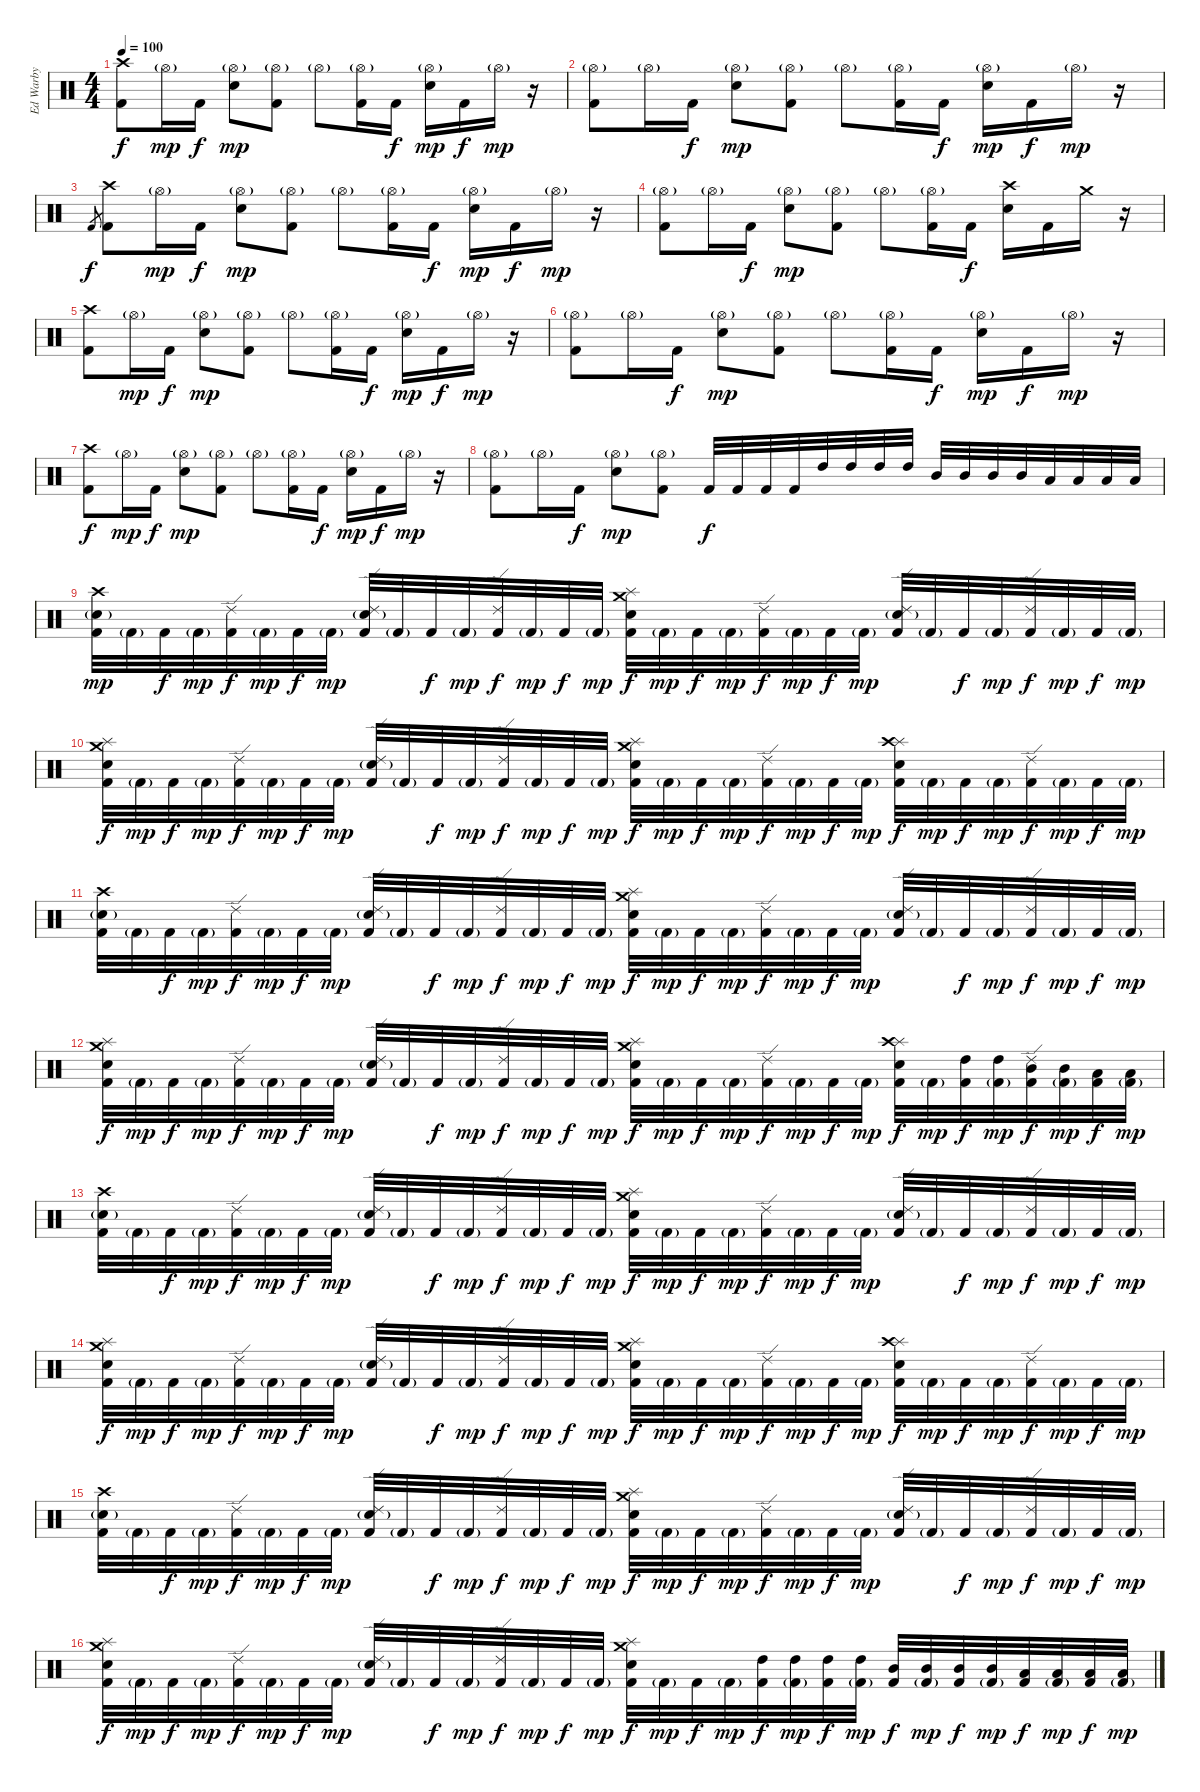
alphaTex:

\track ("Ed Warby" "Ed Warby") {instrument percussion}
\staff {score}
\articulation defaults
\ts (4 4)
\tempo 100
\clef neutral
\ks c
("Crash high (hit)" "Kick (hit) 2").8{dy f} "Hi-Hat (open)"{g}.16{dy mp} "Kick (hit) 2".16{dy f} ("Hi-Hat (open)"{g} "Electric Snare (hit)").8{dy mp} ("Hi-Hat (open)"{g} "Kick (hit) 2").8 "Hi-Hat (open)"{g}.8 ("Hi-Hat (open)"{g} "Kick (hit) 2").16 "Kick (hit) 2".16{dy f} ("Hi-Hat (open)"{g} "Electric Snare (hit)").16{dy mp} "Kick (hit) 2".16{dy f} "Hi-Hat (open)"{g}.16{dy mp} r.16 |
("Hi-Hat (open)"{g} "Kick (hit) 2").8 "Hi-Hat (open)"{g}.16 "Kick (hit) 2".16{dy f} ("Hi-Hat (open)"{g} "Electric Snare (hit)").8{dy mp} ("Hi-Hat (open)"{g} "Kick (hit) 2").8 "Hi-Hat (open)"{g}.8 ("Hi-Hat (open)"{g} "Kick (hit) 2").16 "Kick (hit) 2".16{dy f} ("Hi-Hat (open)"{g} "Electric Snare (hit)").16{dy mp} "Kick (hit) 2".16{dy f} "Hi-Hat (open)"{g}.16{dy mp} r.16 |
"Kick (hit) 2".8{gr dy f} ("Crash high (hit)" "Kick (hit) 2").8 "Hi-Hat (open)"{g}.16{dy mp} "Kick (hit) 2".16{dy f} ("Hi-Hat (open)"{g} "Electric Snare (hit)").8{dy mp} ("Hi-Hat (open)"{g} "Kick (hit) 2").8 "Hi-Hat (open)"{g}.8 ("Hi-Hat (open)"{g} "Kick (hit) 2").16 "Kick (hit) 2".16{dy f} ("Hi-Hat (open)"{g} "Electric Snare (hit)").16{dy mp} "Kick (hit) 2".16{dy f} "Hi-Hat (open)"{g}.16{dy mp} r.16 |
("Hi-Hat (open)"{g} "Kick (hit) 2").8 "Hi-Hat (open)"{g}.16 "Kick (hit) 2".16{dy f} ("Hi-Hat (open)"{g} "Electric Snare (hit)").8{dy mp} ("Hi-Hat (open)"{g} "Kick (hit) 2").8 "Hi-Hat (open)"{g}.8 ("Hi-Hat (open)"{g} "Kick (hit) 2").16 "Kick (hit) 2".16{dy f} ("Crash high (hit)" "Electric Snare (hit)").16 "Kick (hit) 2".16 "Crash medium (hit)".16 r.16 |
("Crash high (hit)" "Kick (hit) 2").8 "Hi-Hat (open)"{g}.16{dy mp} "Kick (hit) 2".16{dy f} ("Hi-Hat (open)"{g} "Electric Snare (hit)").8{dy mp} ("Hi-Hat (open)"{g} "Kick (hit) 2").8 "Hi-Hat (open)"{g}.8 ("Hi-Hat (open)"{g} "Kick (hit) 2").16 "Kick (hit) 2".16{dy f} ("Hi-Hat (open)"{g} "Electric Snare (hit)").16{dy mp} "Kick (hit) 2".16{dy f} "Hi-Hat (open)"{g}.16{dy mp} r.16 |
("Hi-Hat (open)"{g} "Kick (hit) 2").8 "Hi-Hat (open)"{g}.16 "Kick (hit) 2".16{dy f} ("Hi-Hat (open)"{g} "Electric Snare (hit)").8{dy mp} ("Hi-Hat (open)"{g} "Kick (hit) 2").8 "Hi-Hat (open)"{g}.8 ("Hi-Hat (open)"{g} "Kick (hit) 2").16 "Kick (hit) 2".16{dy f} ("Hi-Hat (open)"{g} "Electric Snare (hit)").16{dy mp} "Kick (hit) 2".16{dy f} "Hi-Hat (open)"{g}.16{dy mp} r.16 |
("Crash high (hit)" "Kick (hit) 2").8{dy f} "Hi-Hat (open)"{g}.16{dy mp} "Kick (hit) 2".16{dy f} ("Hi-Hat (open)"{g} "Electric Snare (hit)").8{dy mp} ("Hi-Hat (open)"{g} "Kick (hit) 2").8 "Hi-Hat (open)"{g}.8 ("Hi-Hat (open)"{g} "Kick (hit) 2").16 "Kick (hit) 2".16{dy f} ("Hi-Hat (open)"{g} "Electric Snare (hit)").16{dy mp} "Kick (hit) 2".16{dy f} "Hi-Hat (open)"{g}.16{dy mp} r.16 |
("Hi-Hat (open)"{g} "Kick (hit) 2").8 "Hi-Hat (open)"{g}.16 "Kick (hit) 2".16{dy f} ("Hi-Hat (open)"{g} "Electric Snare (hit)").8{dy mp} ("Hi-Hat (open)"{g} "Kick (hit) 2").8 "Kick (hit) 2".32{dy f} "Kick (hit) 2".32 "Kick (hit) 2".32 "Kick (hit) 2".32 "High Tom (hit)".32 "High Tom (hit)".32 "High Tom (hit)".32 "High Tom (hit)".32 "Mid Tom (hit)".32 "Mid Tom (hit)".32 "Mid Tom (hit)".32 "Mid Tom (hit)".32 "Low Tom (hit)".32 "Low Tom (hit)".32 "Low Tom (hit)".32 "Low Tom (hit)".32 |
("Crash high (hit)" "Snare (hit) 2"{g} "Kick (hit) 2").32{dy mp} "Kick (hit) 2"{g}.32 "Kick (hit) 2".32{dy f} "Kick (hit) 2"{g}.32{dy mp} ("Ride (edge) 2" "Kick (hit) 2").32{dy f} "Kick (hit) 2"{g}.32{dy mp} "Kick (hit) 2".32{dy f} "Kick (hit) 2"{g}.32{dy mp} ("Ride (edge) 2" "Snare (hit) 2"{g} "Kick (hit) 2").32 "Kick (hit) 2"{g}.32 "Kick (hit) 2".32{dy f} "Kick (hit) 2"{g}.32{dy mp} ("Ride (edge) 2" "Kick (hit) 2").32{dy f} "Kick (hit) 2"{g}.32{dy mp} "Kick (hit) 2".32{dy f} "Kick (hit) 2"{g}.32{dy mp} ("Splash (hit)" "Crash medium (hit)" "Snare (hit) 2" "Kick (hit) 2").32{dy f} "Kick (hit) 2"{g}.32{dy mp} "Kick (hit) 2".32{dy f} "Kick (hit) 2"{g}.32{dy mp} ("Ride (edge) 2" "Kick (hit) 2").32{dy f} "Kick (hit) 2"{g}.32{dy mp} "Kick (hit) 2".32{dy f} "Kick (hit) 2"{g}.32{dy mp} ("Ride (edge) 2" "Snare (hit) 2"{g} "Kick (hit) 2").32 "Kick (hit) 2"{g}.32 "Kick (hit) 2".32{dy f} "Kick (hit) 2"{g}.32{dy mp} ("Ride (edge) 2" "Kick (hit) 2").32{dy f} "Kick (hit) 2"{g}.32{dy mp} "Kick (hit) 2".32{dy f} "Kick (hit) 2"{g}.32{dy mp} |
("Splash (hit)" "Crash medium (hit)" "Snare (hit) 2" "Kick (hit) 2").32{dy f} "Kick (hit) 2"{g}.32{dy mp} "Kick (hit) 2".32{dy f} "Kick (hit) 2"{g}.32{dy mp} ("Ride (edge) 2" "Kick (hit) 2").32{dy f} "Kick (hit) 2"{g}.32{dy mp} "Kick (hit) 2".32{dy f} "Kick (hit) 2"{g}.32{dy mp} ("Ride (edge) 2" "Snare (hit) 2"{g} "Kick (hit) 2").32 "Kick (hit) 2"{g}.32 "Kick (hit) 2".32{dy f} "Kick (hit) 2"{g}.32{dy mp} ("Ride (edge) 2" "Kick (hit) 2").32{dy f} "Kick (hit) 2"{g}.32{dy mp} "Kick (hit) 2".32{dy f} "Kick (hit) 2"{g}.32{dy mp} ("Splash (hit)" "Crash medium (hit)" "Snare (hit) 2" "Kick (hit) 2").32{dy f} "Kick (hit) 2"{g}.32{dy mp} "Kick (hit) 2".32{dy f} "Kick (hit) 2"{g}.32{dy mp} ("Ride (edge) 2" "Kick (hit) 2").32{dy f} "Kick (hit) 2"{g}.32{dy mp} "Kick (hit) 2".32{dy f} "Kick (hit) 2"{g}.32{dy mp} ("Splash (hit)" "Crash high (hit)" "Snare (hit) 2" "Kick (hit) 2").32{dy f} "Kick (hit) 2"{g}.32{dy mp} "Kick (hit) 2".32{dy f} "Kick (hit) 2"{g}.32{dy mp} ("Ride (edge) 2" "Kick (hit) 2").32{dy f} "Kick (hit) 2"{g}.32{dy mp} "Kick (hit) 2".32{dy f} "Kick (hit) 2"{g}.32{dy mp} |
("Crash high (hit)" "Snare (hit) 2"{g} "Kick (hit) 2").32 "Kick (hit) 2"{g}.32 "Kick (hit) 2".32{dy f} "Kick (hit) 2"{g}.32{dy mp} ("Ride (edge) 2" "Kick (hit) 2").32{dy f} "Kick (hit) 2"{g}.32{dy mp} "Kick (hit) 2".32{dy f} "Kick (hit) 2"{g}.32{dy mp} ("Ride (edge) 2" "Snare (hit) 2"{g} "Kick (hit) 2").32 "Kick (hit) 2"{g}.32 "Kick (hit) 2".32{dy f} "Kick (hit) 2"{g}.32{dy mp} ("Ride (edge) 2" "Kick (hit) 2").32{dy f} "Kick (hit) 2"{g}.32{dy mp} "Kick (hit) 2".32{dy f} "Kick (hit) 2"{g}.32{dy mp} ("Splash (hit)" "Crash medium (hit)" "Snare (hit) 2" "Kick (hit) 2").32{dy f} "Kick (hit) 2"{g}.32{dy mp} "Kick (hit) 2".32{dy f} "Kick (hit) 2"{g}.32{dy mp} ("Ride (edge) 2" "Kick (hit) 2").32{dy f} "Kick (hit) 2"{g}.32{dy mp} "Kick (hit) 2".32{dy f} "Kick (hit) 2"{g}.32{dy mp} ("Ride (edge) 2" "Snare (hit) 2"{g} "Kick (hit) 2").32 "Kick (hit) 2"{g}.32 "Kick (hit) 2".32{dy f} "Kick (hit) 2"{g}.32{dy mp} ("Ride (edge) 2" "Kick (hit) 2").32{dy f} "Kick (hit) 2"{g}.32{dy mp} "Kick (hit) 2".32{dy f} "Kick (hit) 2"{g}.32{dy mp} |
("Splash (hit)" "Crash medium (hit)" "Snare (hit) 2" "Kick (hit) 2").32{dy f} "Kick (hit) 2"{g}.32{dy mp} "Kick (hit) 2".32{dy f} "Kick (hit) 2"{g}.32{dy mp} ("Ride (edge) 2" "Kick (hit) 2").32{dy f} "Kick (hit) 2"{g}.32{dy mp} "Kick (hit) 2".32{dy f} "Kick (hit) 2"{g}.32{dy mp} ("Ride (edge) 2" "Snare (hit) 2"{g} "Kick (hit) 2").32 "Kick (hit) 2"{g}.32 "Kick (hit) 2".32{dy f} "Kick (hit) 2"{g}.32{dy mp} ("Ride (edge) 2" "Kick (hit) 2").32{dy f} "Kick (hit) 2"{g}.32{dy mp} "Kick (hit) 2".32{dy f} "Kick (hit) 2"{g}.32{dy mp} ("Splash (hit)" "Crash medium (hit)" "Snare (hit) 2" "Kick (hit) 2").32{dy f} "Kick (hit) 2"{g}.32{dy mp} "Kick (hit) 2".32{dy f} "Kick (hit) 2"{g}.32{dy mp} ("Ride (edge) 2" "Kick (hit) 2").32{dy f} "Kick (hit) 2"{g}.32{dy mp} "Kick (hit) 2".32{dy f} "Kick (hit) 2"{g}.32{dy mp} ("Splash (hit)" "Crash high (hit)" "Snare (hit) 2" "Kick (hit) 2").32{dy f} "Kick (hit) 2"{g}.32{dy mp} ("High Tom (hit)" "Kick (hit) 2").32{dy f} ("High Tom (hit)" "Kick (hit) 2"{g}).32{dy mp} ("Ride (edge) 2" "Mid Tom (hit)" "Kick (hit) 2").32{dy f} ("Mid Tom (hit)" "Kick (hit) 2"{g}).32{dy mp} ("Low Tom (hit)" "Kick (hit) 2").32{dy f} ("Low Tom (hit)" "Kick (hit) 2"{g}).32{dy mp} |
("Crash high (hit)" "Snare (hit) 2"{g} "Kick (hit) 2").32 "Kick (hit) 2"{g}.32 "Kick (hit) 2".32{dy f} "Kick (hit) 2"{g}.32{dy mp} ("Ride (edge) 2" "Kick (hit) 2").32{dy f} "Kick (hit) 2"{g}.32{dy mp} "Kick (hit) 2".32{dy f} "Kick (hit) 2"{g}.32{dy mp} ("Ride (edge) 2" "Snare (hit) 2"{g} "Kick (hit) 2").32 "Kick (hit) 2"{g}.32 "Kick (hit) 2".32{dy f} "Kick (hit) 2"{g}.32{dy mp} ("Ride (edge) 2" "Kick (hit) 2").32{dy f} "Kick (hit) 2"{g}.32{dy mp} "Kick (hit) 2".32{dy f} "Kick (hit) 2"{g}.32{dy mp} ("Splash (hit)" "Crash medium (hit)" "Snare (hit) 2" "Kick (hit) 2").32{dy f} "Kick (hit) 2"{g}.32{dy mp} "Kick (hit) 2".32{dy f} "Kick (hit) 2"{g}.32{dy mp} ("Ride (edge) 2" "Kick (hit) 2").32{dy f} "Kick (hit) 2"{g}.32{dy mp} "Kick (hit) 2".32{dy f} "Kick (hit) 2"{g}.32{dy mp} ("Ride (edge) 2" "Snare (hit) 2"{g} "Kick (hit) 2").32 "Kick (hit) 2"{g}.32 "Kick (hit) 2".32{dy f} "Kick (hit) 2"{g}.32{dy mp} ("Ride (edge) 2" "Kick (hit) 2").32{dy f} "Kick (hit) 2"{g}.32{dy mp} "Kick (hit) 2".32{dy f} "Kick (hit) 2"{g}.32{dy mp} |
("Splash (hit)" "Crash medium (hit)" "Snare (hit) 2" "Kick (hit) 2").32{dy f} "Kick (hit) 2"{g}.32{dy mp} "Kick (hit) 2".32{dy f} "Kick (hit) 2"{g}.32{dy mp} ("Ride (edge) 2" "Kick (hit) 2").32{dy f} "Kick (hit) 2"{g}.32{dy mp} "Kick (hit) 2".32{dy f} "Kick (hit) 2"{g}.32{dy mp} ("Ride (edge) 2" "Snare (hit) 2"{g} "Kick (hit) 2").32 "Kick (hit) 2"{g}.32 "Kick (hit) 2".32{dy f} "Kick (hit) 2"{g}.32{dy mp} ("Ride (edge) 2" "Kick (hit) 2").32{dy f} "Kick (hit) 2"{g}.32{dy mp} "Kick (hit) 2".32{dy f} "Kick (hit) 2"{g}.32{dy mp} ("Splash (hit)" "Crash medium (hit)" "Snare (hit) 2" "Kick (hit) 2").32{dy f} "Kick (hit) 2"{g}.32{dy mp} "Kick (hit) 2".32{dy f} "Kick (hit) 2"{g}.32{dy mp} ("Ride (edge) 2" "Kick (hit) 2").32{dy f} "Kick (hit) 2"{g}.32{dy mp} "Kick (hit) 2".32{dy f} "Kick (hit) 2"{g}.32{dy mp} ("Splash (hit)" "Crash high (hit)" "Snare (hit) 2" "Kick (hit) 2").32{dy f} "Kick (hit) 2"{g}.32{dy mp} "Kick (hit) 2".32{dy f} "Kick (hit) 2"{g}.32{dy mp} ("Ride (edge) 2" "Kick (hit) 2").32{dy f} "Kick (hit) 2"{g}.32{dy mp} "Kick (hit) 2".32{dy f} "Kick (hit) 2"{g}.32{dy mp} |
("Crash high (hit)" "Snare (hit) 2"{g} "Kick (hit) 2").32 "Kick (hit) 2"{g}.32 "Kick (hit) 2".32{dy f} "Kick (hit) 2"{g}.32{dy mp} ("Ride (edge) 2" "Kick (hit) 2").32{dy f} "Kick (hit) 2"{g}.32{dy mp} "Kick (hit) 2".32{dy f} "Kick (hit) 2"{g}.32{dy mp} ("Ride (edge) 2" "Snare (hit) 2"{g} "Kick (hit) 2").32 "Kick (hit) 2"{g}.32 "Kick (hit) 2".32{dy f} "Kick (hit) 2"{g}.32{dy mp} ("Ride (edge) 2" "Kick (hit) 2").32{dy f} "Kick (hit) 2"{g}.32{dy mp} "Kick (hit) 2".32{dy f} "Kick (hit) 2"{g}.32{dy mp} ("Splash (hit)" "Crash medium (hit)" "Snare (hit) 2" "Kick (hit) 2").32{dy f} "Kick (hit) 2"{g}.32{dy mp} "Kick (hit) 2".32{dy f} "Kick (hit) 2"{g}.32{dy mp} ("Ride (edge) 2" "Kick (hit) 2").32{dy f} "Kick (hit) 2"{g}.32{dy mp} "Kick (hit) 2".32{dy f} "Kick (hit) 2"{g}.32{dy mp} ("Ride (edge) 2" "Snare (hit) 2"{g} "Kick (hit) 2").32 "Kick (hit) 2"{g}.32 "Kick (hit) 2".32{dy f} "Kick (hit) 2"{g}.32{dy mp} ("Ride (edge) 2" "Kick (hit) 2").32{dy f} "Kick (hit) 2"{g}.32{dy mp} "Kick (hit) 2".32{dy f} "Kick (hit) 2"{g}.32{dy mp} |
("Splash (hit)" "Crash medium (hit)" "Snare (hit) 2" "Kick (hit) 2").32{dy f} "Kick (hit) 2"{g}.32{dy mp} "Kick (hit) 2".32{dy f} "Kick (hit) 2"{g}.32{dy mp} ("Ride (edge) 2" "Kick (hit) 2").32{dy f} "Kick (hit) 2"{g}.32{dy mp} "Kick (hit) 2".32{dy f} "Kick (hit) 2"{g}.32{dy mp} ("Ride (edge) 2" "Snare (hit) 2"{g} "Kick (hit) 2").32 "Kick (hit) 2"{g}.32 "Kick (hit) 2".32{dy f} "Kick (hit) 2"{g}.32{dy mp} ("Ride (edge) 2" "Kick (hit) 2").32{dy f} "Kick (hit) 2"{g}.32{dy mp} "Kick (hit) 2".32{dy f} "Kick (hit) 2"{g}.32{dy mp} ("Splash (hit)" "Crash medium (hit)" "Snare (hit) 2" "Kick (hit) 2").32{dy f} "Kick (hit) 2"{g}.32{dy mp} "Kick (hit) 2".32{dy f} "Kick (hit) 2"{g}.32{dy mp} ("High Tom (hit)" "Kick (hit) 2").32{dy f} ("High Tom (hit)" "Kick (hit) 2"{g}).32{dy mp} ("High Tom (hit)" "Kick (hit) 2").32{dy f} ("High Tom (hit)" "Kick (hit) 2"{g}).32{dy mp} ("Mid Tom (hit)" "Kick (hit) 2").32{dy f} ("Mid Tom (hit)" "Kick (hit) 2"{g}).32{dy mp} ("Mid Tom (hit)" "Kick (hit) 2").32{dy f} ("Mid Tom (hit)" "Kick (hit) 2"{g}).32{dy mp} ("Low Tom (hit)" "Kick (hit) 2").32{dy f} ("Low Tom (hit)" "Kick (hit) 2"{g}).32{dy mp} ("Low Tom (hit)" "Kick (hit) 2").32{dy f} ("Low Tom (hit)" "Kick (hit) 2"{g}).32{dy mp}
